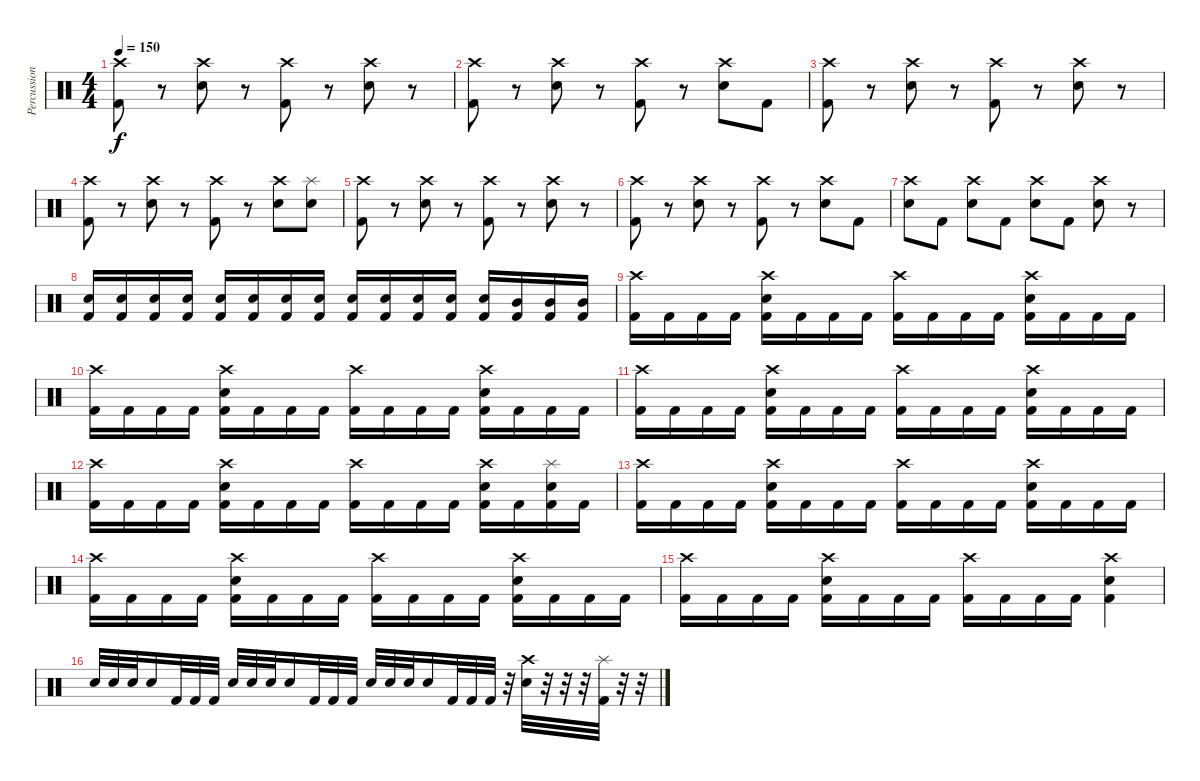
\track ("Percussion" "Percussion") {instrument percussion}
\staff {score}
\articulation defaults
\ts (4 4)
\tempo 150
\clef neutral
\ks c
("Crash high (hit)" "Kick (hit) 2").8{dy f} r.8 ("Crash high (hit)" "Snare (hit) 2").8 r.8 ("Crash high (hit)" "Kick (hit) 2").8 r.8 ("Crash high (hit)" "Snare (hit) 2").8 r.8 |
("Crash high (hit)" "Kick (hit) 2").8 r.8 ("Crash high (hit)" "Snare (hit) 2").8 r.8 ("Crash high (hit)" "Kick (hit) 2").8 r.8 ("Crash high (hit)" "Snare (hit) 2").8 "Kick (hit) 2".8 |
("Crash high (hit)" "Kick (hit) 2").8 r.8 ("Crash high (hit)" "Snare (hit) 2").8 r.8 ("Crash high (hit)" "Kick (hit) 2").8 r.8 ("Crash high (hit)" "Snare (hit) 2").8 r.8 |
("Crash high (hit)" "Kick (hit) 2").8 r.8 ("Crash high (hit)" "Snare (hit) 2").8 r.8 ("Crash high (hit)" "Kick (hit) 2").8 r.8 ("Crash high (hit)" "Snare (hit) 2").8 ("Splash (hit)" "Snare (hit) 2").8 |
("Crash high (hit)" "Kick (hit) 2").8 r.8 ("Crash high (hit)" "Snare (hit) 2").8 r.8 ("Crash high (hit)" "Kick (hit) 2").8 r.8 ("Crash high (hit)" "Snare (hit) 2").8 r.8 |
("Crash high (hit)" "Kick (hit) 2").8 r.8 ("Crash high (hit)" "Snare (hit) 2").8 r.8 ("Crash high (hit)" "Kick (hit) 2").8 r.8 ("Crash high (hit)" "Snare (hit) 2").8 "Kick (hit) 2".8 |
("Crash high (hit)" "Snare (hit) 2").8 "Kick (hit) 2".8 ("Crash high (hit)" "Snare (hit) 2").8 "Kick (hit) 2".8 ("Crash high (hit)" "Snare (hit) 2").8 "Kick (hit) 2".8 ("Crash high (hit)" "Snare (hit) 2").8 r.8 |
("Snare (hit) 2" "Kick (hit) 2").16 ("Snare (hit) 2" "Kick (hit) 2").16 ("Snare (hit) 2" "Kick (hit) 2").16 ("Snare (hit) 2" "Kick (hit) 2").16 ("Snare (hit) 2" "Kick (hit) 2").16 ("Snare (hit) 2" "Kick (hit) 2").16 ("Snare (hit) 2" "Kick (hit) 2").16 ("Snare (hit) 2" "Kick (hit) 2").16 ("Snare (hit) 2" "Kick (hit) 2").16 ("Snare (hit) 2" "Kick (hit) 2").16 ("Snare (hit) 2" "Kick (hit) 2").16 ("Snare (hit) 2" "Kick (hit) 2").16 ("Snare (hit) 2" "Kick (hit) 2").16 ("Mid Tom (hit)" "Kick (hit) 2").16 ("Mid Tom (hit)" "Kick (hit) 2").16 ("Mid Tom (hit)" "Kick (hit) 2").16 |
("Crash high (hit)" "Kick (hit) 2").16 "Kick (hit) 2".16 "Kick (hit) 2".16 "Kick (hit) 2".16 ("Crash high (hit)" "Snare (hit) 2" "Kick (hit) 2").16 "Kick (hit) 2".16 "Kick (hit) 2".16 "Kick (hit) 2".16 ("Crash high (hit)" "Kick (hit) 2").16 "Kick (hit) 2".16 "Kick (hit) 2".16 "Kick (hit) 2".16 ("Crash high (hit)" "Snare (hit) 2" "Kick (hit) 2").16 "Kick (hit) 2".16 "Kick (hit) 2".16 "Kick (hit) 2".16 |
("Crash high (hit)" "Kick (hit) 2").16 "Kick (hit) 2".16 "Kick (hit) 2".16 "Kick (hit) 2".16 ("Crash high (hit)" "Snare (hit) 2" "Kick (hit) 2").16 "Kick (hit) 2".16 "Kick (hit) 2".16 "Kick (hit) 2".16 ("Crash high (hit)" "Kick (hit) 2").16 "Kick (hit) 2".16 "Kick (hit) 2".16 "Kick (hit) 2".16 ("Crash high (hit)" "Snare (hit) 2" "Kick (hit) 2").16 "Kick (hit) 2".16 "Kick (hit) 2".16 "Kick (hit) 2".16 |
("Crash high (hit)" "Kick (hit) 2").16 "Kick (hit) 2".16 "Kick (hit) 2".16 "Kick (hit) 2".16 ("Crash high (hit)" "Snare (hit) 2" "Kick (hit) 2").16 "Kick (hit) 2".16 "Kick (hit) 2".16 "Kick (hit) 2".16 ("Crash high (hit)" "Kick (hit) 2").16 "Kick (hit) 2".16 "Kick (hit) 2".16 "Kick (hit) 2".16 ("Crash high (hit)" "Snare (hit) 2" "Kick (hit) 2").16 "Kick (hit) 2".16 "Kick (hit) 2".16 "Kick (hit) 2".16 |
("Crash high (hit)" "Kick (hit) 2").16 "Kick (hit) 2".16 "Kick (hit) 2".16 "Kick (hit) 2".16 ("Crash high (hit)" "Snare (hit) 2" "Kick (hit) 2").16 "Kick (hit) 2".16 "Kick (hit) 2".16 "Kick (hit) 2".16 ("Crash high (hit)" "Kick (hit) 2").16 "Kick (hit) 2".16 "Kick (hit) 2".16 "Kick (hit) 2".16 ("Crash high (hit)" "Snare (hit) 2" "Kick (hit) 2").16 "Kick (hit) 2".16 ("Splash (hit)" "Snare (hit) 2" "Kick (hit) 2").16 "Kick (hit) 2".16 |
("Crash high (hit)" "Kick (hit) 2").16 "Kick (hit) 2".16 "Kick (hit) 2".16 "Kick (hit) 2".16 ("Crash high (hit)" "Snare (hit) 2" "Kick (hit) 2").16 "Kick (hit) 2".16 "Kick (hit) 2".16 "Kick (hit) 2".16 ("Crash high (hit)" "Kick (hit) 2").16 "Kick (hit) 2".16 "Kick (hit) 2".16 "Kick (hit) 2".16 ("Crash high (hit)" "Snare (hit) 2" "Kick (hit) 2").16 "Kick (hit) 2".16 "Kick (hit) 2".16 "Kick (hit) 2".16 |
("Crash high (hit)" "Kick (hit) 2").16 "Kick (hit) 2".16 "Kick (hit) 2".16 "Kick (hit) 2".16 ("Crash high (hit)" "Snare (hit) 2" "Kick (hit) 2").16 "Kick (hit) 2".16 "Kick (hit) 2".16 "Kick (hit) 2".16 ("Crash high (hit)" "Kick (hit) 2").16 "Kick (hit) 2".16 "Kick (hit) 2".16 "Kick (hit) 2".16 ("Crash high (hit)" "Snare (hit) 2" "Kick (hit) 2").16 "Kick (hit) 2".16 "Kick (hit) 2".16 "Kick (hit) 2".16 |
("Crash high (hit)" "Kick (hit) 2").16 "Kick (hit) 2".16 "Kick (hit) 2".16 "Kick (hit) 2".16 ("Crash high (hit)" "Snare (hit) 2" "Kick (hit) 2").16 "Kick (hit) 2".16 "Kick (hit) 2".16 "Kick (hit) 2".16 ("Crash high (hit)" "Kick (hit) 2").16 "Kick (hit) 2".16 "Kick (hit) 2".16 "Kick (hit) 2".16 ("Crash high (hit)" "Snare (hit) 2" "Kick (hit) 2").4 |
"Snare (hit) 2".32 "Snare (hit) 2".32 "Snare (hit) 2".32 "Snare (hit) 2".16 "Kick (hit) 2".32 "Kick (hit) 2".32 "Kick (hit) 2".32 "Snare (hit) 2".32 "Snare (hit) 2".32 "Snare (hit) 2".32 "Snare (hit) 2".16 "Kick (hit) 2".32 "Kick (hit) 2".32 "Kick (hit) 2".32 "Snare (hit) 2".32 "Snare (hit) 2".32 "Snare (hit) 2".32 "Snare (hit) 2".16 "Kick (hit) 2".32 "Kick (hit) 2".32 "Kick (hit) 2".32 r.32 ("Crash high (hit)" "Snare (hit) 2").32 r.32 r.32 r.32 ("Splash (hit)" "Kick (hit) 2").32 r.32 r.32
